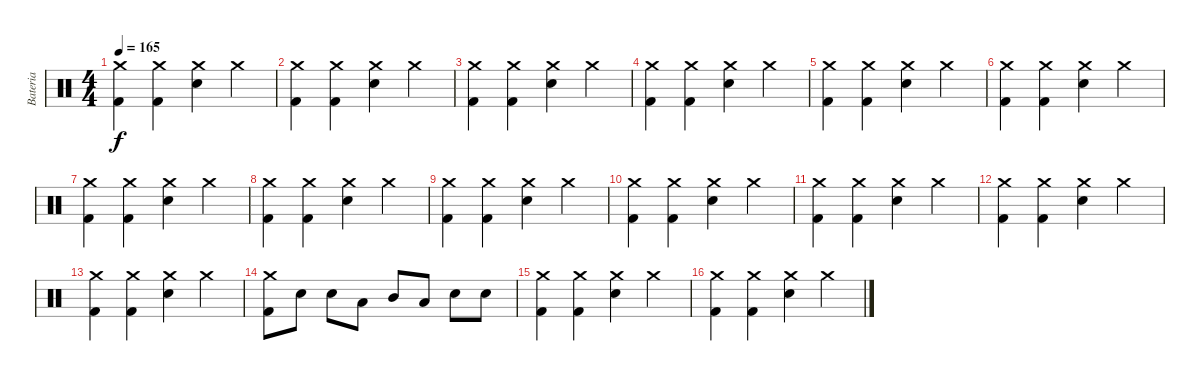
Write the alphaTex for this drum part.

\track ("Bateria" "Bateria") {instrument percussion}
\staff {score}
\articulation defaults
\ts (4 4)
\tempo 165
\clef neutral
\ks c
("Crash medium (hit)" "Kick (hit) 2").4{dy f} ("Crash medium (hit)" "Kick (hit) 2").4 ("Crash medium (hit)" "Electric Snare (hit)").4 "Crash medium (hit)".4 |
("Crash medium (hit)" "Kick (hit) 2").4 ("Crash medium (hit)" "Kick (hit) 2").4 ("Crash medium (hit)" "Electric Snare (hit)").4 "Crash medium (hit)".4 |
("Crash medium (hit)" "Kick (hit) 2").4 ("Crash medium (hit)" "Kick (hit) 2").4 ("Crash medium (hit)" "Electric Snare (hit)").4 "Crash medium (hit)".4 |
("Crash medium (hit)" "Kick (hit) 2").4 ("Crash medium (hit)" "Kick (hit) 2").4 ("Crash medium (hit)" "Electric Snare (hit)").4 "Crash medium (hit)".4 |
("Crash medium (hit)" "Kick (hit) 2").4 ("Crash medium (hit)" "Kick (hit) 2").4 ("Crash medium (hit)" "Electric Snare (hit)").4 "Crash medium (hit)".4 |
("Crash medium (hit)" "Kick (hit) 2").4 ("Crash medium (hit)" "Kick (hit) 2").4 ("Crash medium (hit)" "Electric Snare (hit)").4 "Crash medium (hit)".4 |
("Crash medium (hit)" "Kick (hit) 2").4 ("Crash medium (hit)" "Kick (hit) 2").4 ("Crash medium (hit)" "Electric Snare (hit)").4 "Crash medium (hit)".4 |
("Crash medium (hit)" "Kick (hit) 2").4 ("Crash medium (hit)" "Kick (hit) 2").4 ("Crash medium (hit)" "Electric Snare (hit)").4 "Crash medium (hit)".4 |
("Crash medium (hit)" "Kick (hit) 2").4 ("Crash medium (hit)" "Kick (hit) 2").4 ("Crash medium (hit)" "Electric Snare (hit)").4 "Crash medium (hit)".4 |
("Crash medium (hit)" "Kick (hit) 2").4 ("Crash medium (hit)" "Kick (hit) 2").4 ("Crash medium (hit)" "Electric Snare (hit)").4 "Crash medium (hit)".4 |
("Crash medium (hit)" "Kick (hit) 2").4{volume 16} ("Crash medium (hit)" "Kick (hit) 2").4 ("Crash medium (hit)" "Electric Snare (hit)").4 "Crash medium (hit)".4 |
("Crash medium (hit)" "Kick (hit) 2").4 ("Crash medium (hit)" "Kick (hit) 2").4 ("Crash medium (hit)" "Electric Snare (hit)").4 "Crash medium (hit)".4 |
("Crash medium (hit)" "Kick (hit) 2").4 ("Crash medium (hit)" "Kick (hit) 2").4 ("Crash medium (hit)" "Electric Snare (hit)").4 "Crash medium (hit)".4 |
("Crash medium (hit)" "Kick (hit) 2").8 "Electric Snare (hit)".8 "Electric Snare (hit)".8 "Low Tom (hit)".8 "Mid Tom (hit)".8 "Low Tom (hit)".8 "Electric Snare (hit)".8 "Electric Snare (hit)".8 |
("Crash medium (hit)" "Kick (hit) 2").4 ("Crash medium (hit)" "Kick (hit) 2").4 ("Crash medium (hit)" "Electric Snare (hit)").4 "Crash medium (hit)".4 |
("Crash medium (hit)" "Kick (hit) 2").4 ("Crash medium (hit)" "Kick (hit) 2").4 ("Crash medium (hit)" "Electric Snare (hit)").4 "Crash medium (hit)".4
